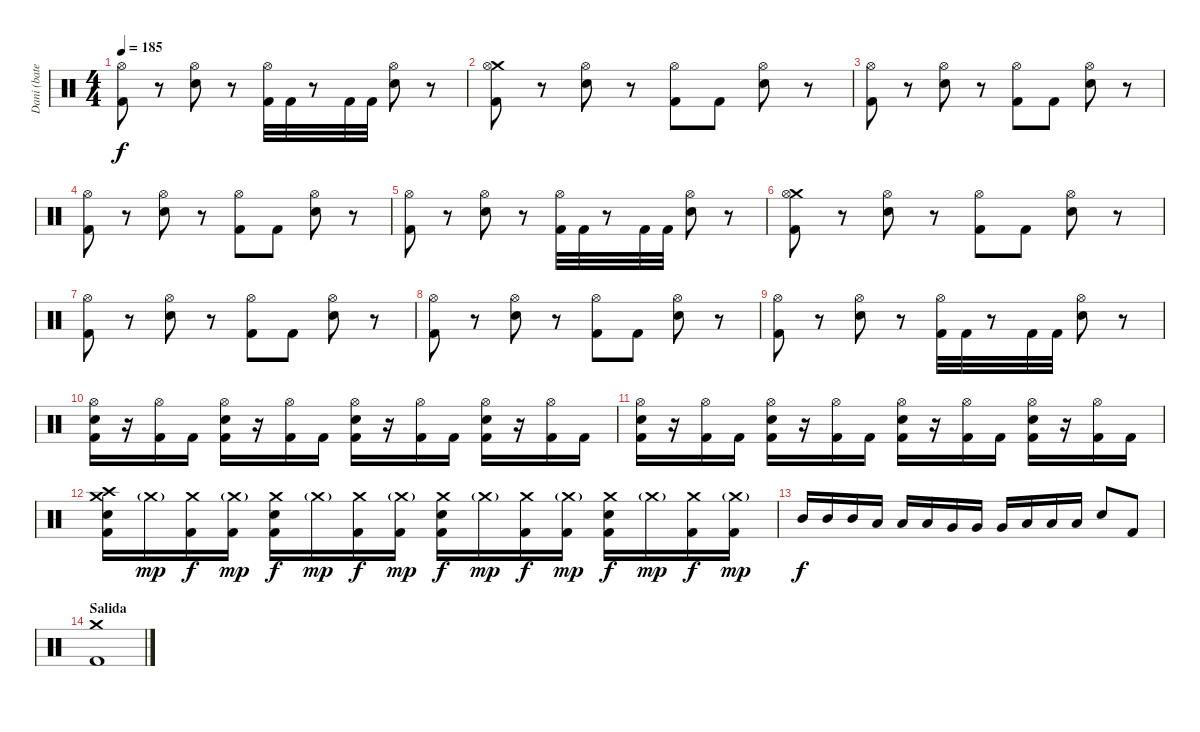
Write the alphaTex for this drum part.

\track ("Dani (batería)" "Dani (bate") {instrument percussion}
\staff {score}
\articulation defaults
\ts (4 4)
\tempo 185
\clef neutral
\ks c
("Hi-Hat (open)" "Kick (hit) 2").8{dy f} r.8 ("Hi-Hat (open)" "Snare (hit) 2").8 r.8 ("Hi-Hat (open)" "Kick (hit) 2").32 "Kick (hit) 2".32 r.8 "Kick (hit) 2".32 "Kick (hit) 2".32 ("Hi-Hat (open)" "Snare (hit) 2").8 r.8 |
("Crash medium (hit)" "Hi-Hat (open)" "Kick (hit) 2").8 r.8 ("Hi-Hat (open)" "Snare (hit) 2").8 r.8 ("Hi-Hat (open)" "Kick (hit) 2").8 "Kick (hit) 2".8 ("Hi-Hat (open)" "Snare (hit) 2").8 r.8 |
("Hi-Hat (open)" "Kick (hit) 2").8 r.8 ("Hi-Hat (open)" "Snare (hit) 2").8 r.8 ("Hi-Hat (open)" "Kick (hit) 2").8 "Kick (hit) 2".8 ("Hi-Hat (open)" "Snare (hit) 2").8 r.8 |
("Hi-Hat (open)" "Kick (hit) 2").8 r.8 ("Hi-Hat (open)" "Snare (hit) 2").8 r.8 ("Hi-Hat (open)" "Kick (hit) 2").8 "Kick (hit) 2".8 ("Hi-Hat (open)" "Snare (hit) 2").8 r.8 |
("Hi-Hat (open)" "Kick (hit) 2").8 r.8 ("Hi-Hat (open)" "Snare (hit) 2").8 r.8 ("Hi-Hat (open)" "Kick (hit) 2").32 "Kick (hit) 2".32 r.8 "Kick (hit) 2".32 "Kick (hit) 2".32 ("Hi-Hat (open)" "Snare (hit) 2").8 r.8 |
("Crash medium (hit)" "Hi-Hat (open)" "Kick (hit) 2").8 r.8 ("Hi-Hat (open)" "Snare (hit) 2").8 r.8 ("Hi-Hat (open)" "Kick (hit) 2").8 "Kick (hit) 2".8 ("Hi-Hat (open)" "Snare (hit) 2").8 r.8 |
("Hi-Hat (open)" "Kick (hit) 2").8 r.8 ("Hi-Hat (open)" "Snare (hit) 2").8 r.8 ("Hi-Hat (open)" "Kick (hit) 2").8 "Kick (hit) 2".8 ("Hi-Hat (open)" "Snare (hit) 2").8 r.8 |
("Hi-Hat (open)" "Kick (hit) 2").8 r.8 ("Hi-Hat (open)" "Snare (hit) 2").8 r.8 ("Hi-Hat (open)" "Kick (hit) 2").8 "Kick (hit) 2".8 ("Hi-Hat (open)" "Snare (hit) 2").8 r.8 |
("Hi-Hat (open)" "Kick (hit) 2").8 r.8 ("Hi-Hat (open)" "Snare (hit) 2").8 r.8 ("Hi-Hat (open)" "Kick (hit) 2").32 "Kick (hit) 2".32 r.8 "Kick (hit) 2".32 "Kick (hit) 2".32 ("Hi-Hat (open)" "Snare (hit) 2").8 r.8 |
("Hi-Hat (open)" "Snare (hit) 2" "Kick (hit) 2").16 r.16 ("Hi-Hat (open)" "Kick (hit) 2").16 "Kick (hit) 2".16 ("Hi-Hat (open)" "Snare (hit) 2" "Kick (hit) 2").16 r.16 ("Hi-Hat (open)" "Kick (hit) 2").16 "Kick (hit) 2".16 ("Hi-Hat (open)" "Snare (hit) 2" "Kick (hit) 2").16 r.16 ("Hi-Hat (open)" "Kick (hit) 2").16 "Kick (hit) 2".16 ("Hi-Hat (open)" "Snare (hit) 2" "Kick (hit) 2").16 r.16 ("Hi-Hat (open)" "Kick (hit) 2").16 "Kick (hit) 2".16 |
("Hi-Hat (open)" "Snare (hit) 2" "Kick (hit) 2").16 r.16 ("Hi-Hat (open)" "Kick (hit) 2").16 "Kick (hit) 2".16 ("Hi-Hat (open)" "Snare (hit) 2" "Kick (hit) 2").16 r.16 ("Hi-Hat (open)" "Kick (hit) 2").16 "Kick (hit) 2".16 ("Hi-Hat (open)" "Snare (hit) 2" "Kick (hit) 2").16 r.16 ("Hi-Hat (open)" "Kick (hit) 2").16 "Kick (hit) 2".16 ("Hi-Hat (open)" "Snare (hit) 2" "Kick (hit) 2").16 r.16 ("Hi-Hat (open)" "Kick (hit) 2").16 "Kick (hit) 2".16 |
("Crash high (hit)" "Crash medium (hit)" "Snare (hit) 2" "Kick (hit) 2").16 "Crash medium (hit)"{g}.16{dy mp} ("Crash medium (hit)" "Kick (hit) 2").16{dy f} ("Crash medium (hit)"{g} "Kick (hit) 2").16{dy mp} ("Crash medium (hit)" "Snare (hit) 2" "Kick (hit) 2").16{dy f} "Crash medium (hit)"{g}.16{dy mp} ("Crash medium (hit)" "Kick (hit) 2").16{dy f} ("Crash medium (hit)"{g} "Kick (hit) 2").16{dy mp} ("Crash medium (hit)" "Snare (hit) 2" "Kick (hit) 2").16{dy f} "Crash medium (hit)"{g}.16{dy mp} ("Crash medium (hit)" "Kick (hit) 2").16{dy f} ("Crash medium (hit)"{g} "Kick (hit) 2").16{dy mp} ("Crash medium (hit)" "Snare (hit) 2" "Kick (hit) 2").16{dy f} "Crash medium (hit)"{g}.16{dy mp} ("Crash medium (hit)" "Kick (hit) 2").16{dy f} ("Crash medium (hit)"{g} "Kick (hit) 2").16{dy mp} |
"Mid Tom (hit)".16{dy f} "Mid Tom (hit)".16 "Mid Tom (hit)".16 "Low Tom (hit)".16 "Low Tom (hit)".16 "Low Tom (hit)".16 "Very Low Tom (hit)".16 "Very Low Tom (hit)".16 "Very Low Tom (hit)".16 "Low Floor Tom (hit)".16 "Low Floor Tom (hit)".16 "Low Floor Tom (hit)".16 "Snare (hit) 2".8 "Kick (hit) 2".8 |
\section ("" "Salida")
("Crash medium (hit)" "Kick (hit) 2").1
